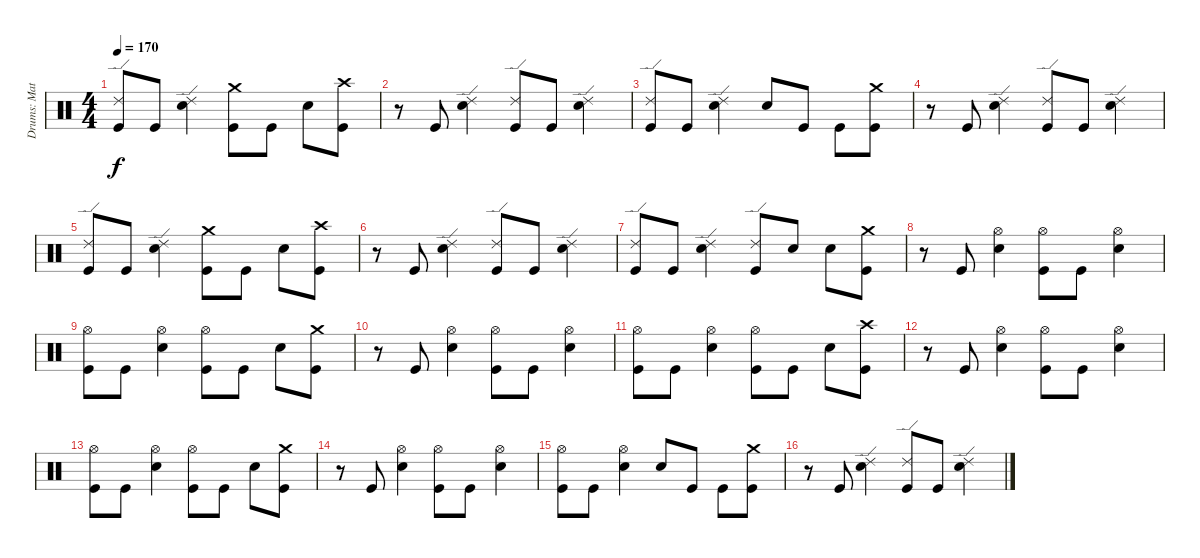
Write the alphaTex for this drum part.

\track ("Drums: Matt" "Drums: Mat") {instrument percussion}
\staff {score}
\articulation defaults
\ts (4 4)
\tempo 170
\clef neutral
\ks c
("Kick (hit)" "Ride (edge) 2").8{dy f} "Kick (hit)".8 ("Snare (hit) 2" "Ride (edge) 2").4 ("Crash medium (hit)" "Kick (hit)").8 "Kick (hit)".8 "Snare (hit) 2".8 ("Kick (hit)" "Crash high (hit)").8 |
r.8 "Kick (hit)".8 ("Snare (hit) 2" "Ride (edge) 2").4 ("Kick (hit)" "Ride (edge) 2").8 "Kick (hit)".8 ("Ride (edge) 2" "Snare (hit) 2").4 |
("Kick (hit)" "Ride (edge) 2").8 "Kick (hit)".8 ("Ride (edge) 2" "Snare (hit) 2").4 "Snare (hit) 2".8 "Kick (hit)".8 "Kick (hit)".8 ("Crash medium (hit)" "Kick (hit)").8 |
r.8 "Kick (hit)".8 ("Snare (hit) 2" "Ride (edge) 2").4 ("Kick (hit)" "Ride (edge) 2").8 "Kick (hit)".8 ("Ride (edge) 2" "Snare (hit) 2").4 |
("Ride (edge) 2" "Kick (hit)").8 "Kick (hit)".8 ("Ride (edge) 2" "Snare (hit) 2").4 ("Kick (hit)" "Crash medium (hit)").8 "Kick (hit)".8 "Snare (hit) 2".8 ("Kick (hit)" "Crash high (hit)").8 |
r.8 "Kick (hit)".8 ("Snare (hit) 2" "Ride (edge) 2").4 ("Ride (edge) 2" "Kick (hit)").8 "Kick (hit)".8 ("Ride (edge) 2" "Snare (hit) 2").4 |
("Kick (hit)" "Ride (edge) 2").8 "Kick (hit)".8 ("Ride (edge) 2" "Snare (hit) 2").4 ("Ride (edge) 2" "Kick (hit)").8 "Snare (hit) 2".8 "Snare (hit) 2".8 ("Kick (hit)" "Crash medium (hit)").8 |
r.8 "Kick (hit)".8 ("Hi-Hat (open)" "Snare (hit) 2").4 ("Kick (hit)" "Hi-Hat (open)").8 "Kick (hit)".8 ("Snare (hit) 2" "Hi-Hat (open)").4 |
("Kick (hit)" "Hi-Hat (open)").8 "Kick (hit)".8 ("Hi-Hat (open)" "Snare (hit) 2").4 ("Hi-Hat (open)" "Kick (hit)").8 "Kick (hit)".8 "Snare (hit) 2".8 ("Kick (hit)" "Crash medium (hit)").8 |
r.8 "Kick (hit)".8 ("Snare (hit) 2" "Hi-Hat (open)").4 ("Hi-Hat (open)" "Kick (hit)").8 "Kick (hit)".8 ("Snare (hit) 2" "Hi-Hat (open)").4 |
("Hi-Hat (open)" "Kick (hit)").8 "Kick (hit)".8 ("Hi-Hat (open)" "Snare (hit) 2").4 ("Kick (hit)" "Hi-Hat (open)").8 "Kick (hit)".8 "Snare (hit) 2".8 ("Kick (hit)" "Crash high (hit)").8 |
r.8 "Kick (hit)".8 ("Snare (hit) 2" "Hi-Hat (open)").4 ("Kick (hit)" "Hi-Hat (open)").8 "Kick (hit)".8 ("Hi-Hat (open)" "Snare (hit) 2").4 |
("Kick (hit)" "Hi-Hat (open)").8 "Kick (hit)".8 ("Snare (hit) 2" "Hi-Hat (open)").4 ("Kick (hit)" "Hi-Hat (open)").8 "Kick (hit)".8 "Snare (hit) 2".8 ("Kick (hit)" "Crash medium (hit)").8 |
r.8 "Kick (hit)".8 ("Hi-Hat (open)" "Snare (hit) 2").4 ("Kick (hit)" "Hi-Hat (open)").8 "Kick (hit)".8 ("Hi-Hat (open)" "Snare (hit) 2").4 |
("Hi-Hat (open)" "Kick (hit)").8 "Kick (hit)".8 ("Hi-Hat (open)" "Snare (hit) 2").4 "Snare (hit) 2".8 "Kick (hit)".8 "Kick (hit)".8 ("Crash medium (hit)" "Kick (hit)").8 |
r.8 "Kick (hit)".8 ("Snare (hit) 2" "Ride (edge) 2").4 ("Kick (hit)" "Ride (edge) 2").8 "Kick (hit)".8 ("Ride (edge) 2" "Snare (hit) 2").4
